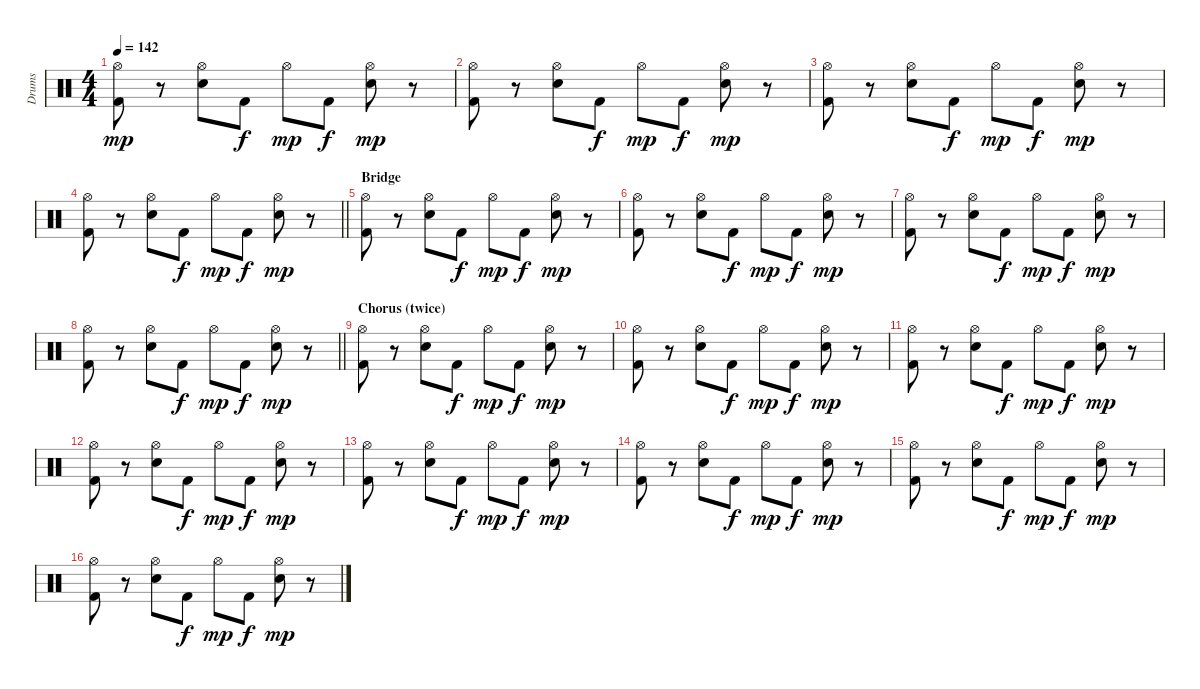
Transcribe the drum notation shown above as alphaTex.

\track ("Drums" "Drums") {instrument percussion}
\staff {score}
\articulation defaults
\ts (4 4)
\tempo 142
\clef neutral
\ks c
("Hi-Hat (open)" "Kick (hit) 2").8{dy mp} r.8 ("Hi-Hat (open)" "Snare (hit) 2").8 "Kick (hit) 2".8{dy f} "Hi-Hat (open)".8{dy mp} "Kick (hit) 2".8{dy f} ("Hi-Hat (open)" "Snare (hit) 2").8{dy mp} r.8 |
("Hi-Hat (open)" "Kick (hit) 2").8 r.8 ("Hi-Hat (open)" "Snare (hit) 2").8 "Kick (hit) 2".8{dy f} "Hi-Hat (open)".8{dy mp} "Kick (hit) 2".8{dy f} ("Hi-Hat (open)" "Snare (hit) 2").8{dy mp} r.8 |
("Hi-Hat (open)" "Kick (hit) 2").8 r.8 ("Hi-Hat (open)" "Snare (hit) 2").8 "Kick (hit) 2".8{dy f} "Hi-Hat (open)".8{dy mp} "Kick (hit) 2".8{dy f} ("Hi-Hat (open)" "Snare (hit) 2").8{dy mp} r.8 |
\barLineRight lightlight
("Hi-Hat (open)" "Kick (hit) 2").8 r.8 ("Hi-Hat (open)" "Snare (hit) 2").8 "Kick (hit) 2".8{dy f} "Hi-Hat (open)".8{dy mp} "Kick (hit) 2".8{dy f} ("Hi-Hat (open)" "Snare (hit) 2").8{dy mp} r.8 |
\section ("" "Bridge")
("Hi-Hat (open)" "Kick (hit) 2").8 r.8 ("Hi-Hat (open)" "Snare (hit) 2").8 "Kick (hit) 2".8{dy f} "Hi-Hat (open)".8{dy mp} "Kick (hit) 2".8{dy f} ("Hi-Hat (open)" "Snare (hit) 2").8{dy mp} r.8 |
("Hi-Hat (open)" "Kick (hit) 2").8 r.8 ("Hi-Hat (open)" "Snare (hit) 2").8 "Kick (hit) 2".8{dy f} "Hi-Hat (open)".8{dy mp} "Kick (hit) 2".8{dy f} ("Hi-Hat (open)" "Snare (hit) 2").8{dy mp} r.8 |
("Hi-Hat (open)" "Kick (hit) 2").8 r.8 ("Hi-Hat (open)" "Snare (hit) 2").8 "Kick (hit) 2".8{dy f} "Hi-Hat (open)".8{dy mp} "Kick (hit) 2".8{dy f} ("Hi-Hat (open)" "Snare (hit) 2").8{dy mp} r.8 |
\barLineRight lightlight
("Hi-Hat (open)" "Kick (hit) 2").8 r.8 ("Hi-Hat (open)" "Snare (hit) 2").8 "Kick (hit) 2".8{dy f} "Hi-Hat (open)".8{dy mp} "Kick (hit) 2".8{dy f} ("Hi-Hat (open)" "Snare (hit) 2").8{dy mp} r.8 |
\section ("" "Chorus (twice)")
("Hi-Hat (open)" "Kick (hit) 2").8 r.8 ("Hi-Hat (open)" "Snare (hit) 2").8 "Kick (hit) 2".8{dy f} "Hi-Hat (open)".8{dy mp} "Kick (hit) 2".8{dy f} ("Hi-Hat (open)" "Snare (hit) 2").8{dy mp} r.8 |
("Hi-Hat (open)" "Kick (hit) 2").8 r.8 ("Hi-Hat (open)" "Snare (hit) 2").8 "Kick (hit) 2".8{dy f} "Hi-Hat (open)".8{dy mp} "Kick (hit) 2".8{dy f} ("Hi-Hat (open)" "Snare (hit) 2").8{dy mp} r.8 |
("Hi-Hat (open)" "Kick (hit) 2").8 r.8 ("Hi-Hat (open)" "Snare (hit) 2").8 "Kick (hit) 2".8{dy f} "Hi-Hat (open)".8{dy mp} "Kick (hit) 2".8{dy f} ("Hi-Hat (open)" "Snare (hit) 2").8{dy mp} r.8 |
("Hi-Hat (open)" "Kick (hit) 2").8 r.8 ("Hi-Hat (open)" "Snare (hit) 2").8 "Kick (hit) 2".8{dy f} "Hi-Hat (open)".8{dy mp} "Kick (hit) 2".8{dy f} ("Hi-Hat (open)" "Snare (hit) 2").8{dy mp} r.8 |
("Hi-Hat (open)" "Kick (hit) 2").8 r.8 ("Hi-Hat (open)" "Snare (hit) 2").8 "Kick (hit) 2".8{dy f} "Hi-Hat (open)".8{dy mp} "Kick (hit) 2".8{dy f} ("Hi-Hat (open)" "Snare (hit) 2").8{dy mp} r.8 |
("Hi-Hat (open)" "Kick (hit) 2").8 r.8 ("Hi-Hat (open)" "Snare (hit) 2").8 "Kick (hit) 2".8{dy f} "Hi-Hat (open)".8{dy mp} "Kick (hit) 2".8{dy f} ("Hi-Hat (open)" "Snare (hit) 2").8{dy mp} r.8 |
("Hi-Hat (open)" "Kick (hit) 2").8 r.8 ("Hi-Hat (open)" "Snare (hit) 2").8 "Kick (hit) 2".8{dy f} "Hi-Hat (open)".8{dy mp} "Kick (hit) 2".8{dy f} ("Hi-Hat (open)" "Snare (hit) 2").8{dy mp} r.8 |
("Hi-Hat (open)" "Kick (hit) 2").8 r.8 ("Hi-Hat (open)" "Snare (hit) 2").8 "Kick (hit) 2".8{dy f} "Hi-Hat (open)".8{dy mp} "Kick (hit) 2".8{dy f} ("Hi-Hat (open)" "Snare (hit) 2").8{dy mp} r.8
